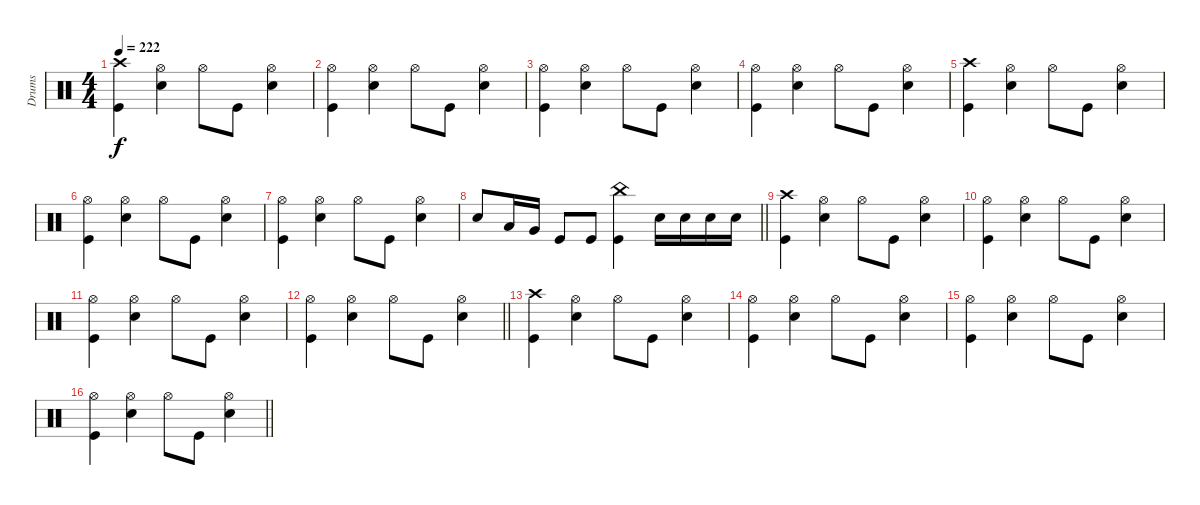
\track ("Drums" "Drums") {instrument percussion}
\staff
\articulation defaults
\ts (4 4)
\tempo 222
\clef neutral
\ks c
("Crash high (hit)" "Kick (hit)").4{dy f} ("Hi-Hat (open)" "Electric Snare (hit)").4 "Hi-Hat (open)".8 "Kick (hit)".8 ("Hi-Hat (open)" "Electric Snare (hit)").4 |
("Hi-Hat (open)" "Kick (hit)").4 ("Hi-Hat (open)" "Electric Snare (hit)").4 "Hi-Hat (open)".8 "Kick (hit)".8 ("Hi-Hat (open)" "Electric Snare (hit)").4 |
("Hi-Hat (open)" "Kick (hit)").4 ("Hi-Hat (open)" "Electric Snare (hit)").4 "Hi-Hat (open)".8 "Kick (hit)".8 ("Hi-Hat (open)" "Electric Snare (hit)").4 |
("Hi-Hat (open)" "Kick (hit)").4 ("Hi-Hat (open)" "Electric Snare (hit)").4 "Hi-Hat (open)".8 "Kick (hit)".8 ("Hi-Hat (open)" "Electric Snare (hit)").4 |
("Crash high (hit)" "Kick (hit)").4 ("Hi-Hat (open)" "Electric Snare (hit)").4 "Hi-Hat (open)".8 "Kick (hit)".8 ("Hi-Hat (open)" "Electric Snare (hit)").4 |
("Hi-Hat (open)" "Kick (hit)").4 ("Hi-Hat (open)" "Electric Snare (hit)").4 "Hi-Hat (open)".8 "Kick (hit)".8 ("Hi-Hat (open)" "Electric Snare (hit)").4 |
("Hi-Hat (open)" "Kick (hit)").4 ("Hi-Hat (open)" "Electric Snare (hit)").4 "Hi-Hat (open)".8 "Kick (hit)".8 ("Hi-Hat (open)" "Electric Snare (hit)").4 |
\barLineRight lightlight "Electric Snare (hit)".8 "Low Tom (hit)".16 "Very Low Tom (hit)".16 "Kick (hit)".8 "Kick (hit)".8
("China (hit)" "Kick (hit)").4 "Electric Snare (hit)".16 "Electric Snare (hit)".16 "Electric Snare (hit)".16 "Electric Snare (hit)".16 |
("Crash high (hit)" "Kick (hit)").4 ("Hi-Hat (open)" "Electric Snare (hit)").4 "Hi-Hat (open)".8 "Kick (hit)".8 ("Hi-Hat (open)" "Electric Snare (hit)").4 |
("Hi-Hat (open)" "Kick (hit)").4 ("Hi-Hat (open)" "Electric Snare (hit)").4 "Hi-Hat (open)".8 "Kick (hit)".8 ("Hi-Hat (open)" "Electric Snare (hit)").4 |
("Hi-Hat (open)" "Kick (hit)").4 ("Hi-Hat (open)" "Electric Snare (hit)").4 "Hi-Hat (open)".8 "Kick (hit)".8 ("Hi-Hat (open)" "Electric Snare (hit)").4 |
\barLineRight lightlight
("Hi-Hat (open)" "Kick (hit)").4 ("Hi-Hat (open)" "Electric Snare (hit)").4 "Hi-Hat (open)".8 "Kick (hit)".8 ("Hi-Hat (open)" "Electric Snare (hit)").4 |
("Crash high (hit)" "Kick (hit)").4 ("Hi-Hat (open)" "Electric Snare (hit)").4 "Hi-Hat (open)".8 "Kick (hit)".8 ("Hi-Hat (open)" "Electric Snare (hit)").4 |
("Hi-Hat (open)" "Kick (hit)").4 ("Hi-Hat (open)" "Electric Snare (hit)").4 "Hi-Hat (open)".8 "Kick (hit)".8 ("Hi-Hat (open)" "Electric Snare (hit)").4 |
("Hi-Hat (open)" "Kick (hit)").4 ("Hi-Hat (open)" "Electric Snare (hit)").4 "Hi-Hat (open)".8 "Kick (hit)".8 ("Hi-Hat (open)" "Electric Snare (hit)").4 |
\barLineRight lightlight
("Hi-Hat (open)" "Kick (hit)").4 ("Hi-Hat (open)" "Electric Snare (hit)").4 "Hi-Hat (open)".8 "Kick (hit)".8 ("Hi-Hat (open)" "Electric Snare (hit)").4
